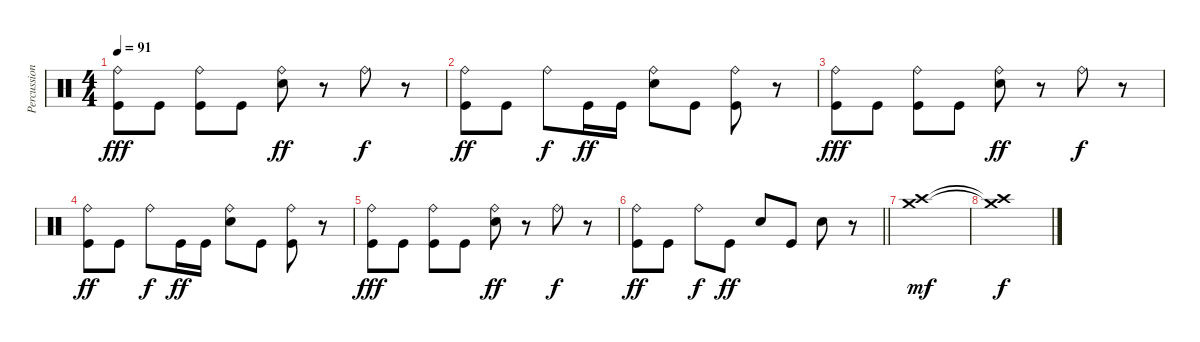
\track ("Percussions" "Percussion") {instrument percussion}
\staff {score}
\articulation defaults
\ts (4 4)
\tempo 91
\clef neutral
\ks c
("Ride (bell)" "Kick (hit)").8{dy fff} "Kick (hit)".8 ("Ride (bell)" "Kick (hit)").8 "Kick (hit)".8 ("Ride (bell)" "Electric Snare (hit)").8{dy ff} r.8 "Ride (bell)".8{dy f} r.8 |
("Ride (bell)" "Kick (hit)").8{dy ff} "Kick (hit)".8 "Ride (bell)".8{dy f} "Kick (hit)".16{dy ff} "Kick (hit)".16 ("Ride (bell)" "Electric Snare (hit)").8 "Kick (hit)".8 ("Ride (bell)" "Kick (hit)").8 r.8 |
("Ride (bell)" "Kick (hit)").8{dy fff} "Kick (hit)".8 ("Ride (bell)" "Kick (hit)").8 "Kick (hit)".8 ("Ride (bell)" "Electric Snare (hit)").8{dy ff} r.8 "Ride (bell)".8{dy f} r.8 |
("Ride (bell)" "Kick (hit)").8{dy ff} "Kick (hit)".8 "Ride (bell)".8{dy f} "Kick (hit)".16{dy ff} "Kick (hit)".16 ("Ride (bell)" "Electric Snare (hit)").8 "Kick (hit)".8 ("Ride (bell)" "Kick (hit)").8 r.8 |
("Ride (bell)" "Kick (hit)").8{dy fff} "Kick (hit)".8 ("Ride (bell)" "Kick (hit)").8 "Kick (hit)".8 ("Ride (bell)" "Electric Snare (hit)").8{dy ff} r.8 "Ride (bell)".8{dy f} r.8 |
\barLineRight lightlight
("Ride (bell)" "Kick (hit)").8{dy ff} "Kick (hit)".8 "Ride (bell)".8{dy f} "Kick (hit)".8{dy ff} "Electric Snare (hit)".8 "Kick (hit)".8 "Electric Snare (hit)".8 r.8 |
("Crash high (hit)" "Crash medium (hit)").1{dy mf} |
("Crash high (hit)"{t} "Crash medium (hit)"{t}).1{dy f}
